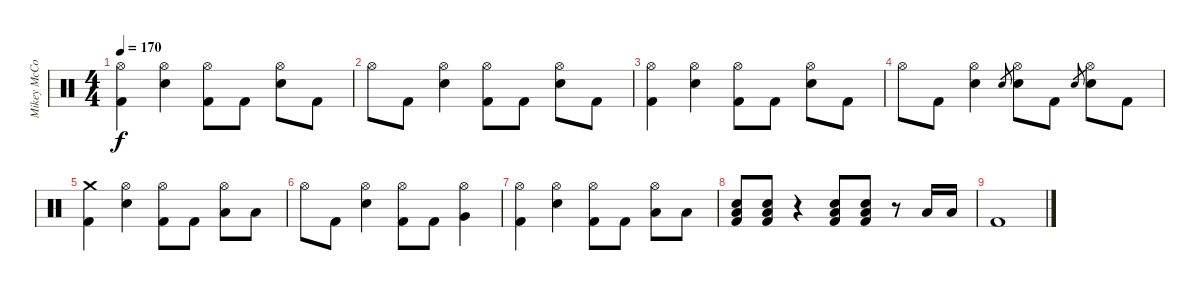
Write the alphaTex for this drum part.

\track ("Mikey McCormack" "Mikey McCo") {instrument percussion}
\staff {score}
\articulation defaults
\ts (4 4)
\tempo 170
\clef neutral
\ks c
("Hi-Hat (open)" "Kick (hit) 2").4{dy f} ("Hi-Hat (open)" "Electric Snare (hit)").4 ("Hi-Hat (open)" "Kick (hit) 2").8 "Kick (hit) 2".8 ("Hi-Hat (open)" "Electric Snare (hit)").8 "Kick (hit) 2".8 |
"Hi-Hat (open)".8 "Kick (hit) 2".8 ("Hi-Hat (open)" "Electric Snare (hit)").4 ("Hi-Hat (open)" "Kick (hit) 2").8 "Kick (hit) 2".8 ("Hi-Hat (open)" "Electric Snare (hit)").8 "Kick (hit) 2".8 |
("Hi-Hat (open)" "Kick (hit) 2").4 ("Hi-Hat (open)" "Electric Snare (hit)").4 ("Hi-Hat (open)" "Kick (hit) 2").8 "Kick (hit) 2".8 ("Hi-Hat (open)" "Electric Snare (hit)").8 "Kick (hit) 2".8 |
"Hi-Hat (open)".8 "Kick (hit) 2".8 ("Hi-Hat (open)" "Electric Snare (hit)").4 "Electric Snare (hit)".8{gr} ("Hi-Hat (open)" "Electric Snare (hit)").8 "Kick (hit) 2".8 "Electric Snare (hit)".8{gr} ("Hi-Hat (open)" "Electric Snare (hit)").8 "Kick (hit) 2".8 |
("Crash medium (hit)" "Kick (hit) 2").4 ("Hi-Hat (open)" "Electric Snare (hit)").4 ("Hi-Hat (open)" "Kick (hit) 2").8 "Kick (hit) 2".8 ("Hi-Hat (open)" "Low Tom (hit)").8 "Low Tom (hit)".8 |
"Hi-Hat (open)".8 "Kick (hit) 2".8 ("Hi-Hat (open)" "Electric Snare (hit)").4 ("Hi-Hat (open)" "Kick (hit) 2").8 "Kick (hit) 2".8 ("Hi-Hat (open)" "Very Low Tom (hit)").4 |
("Hi-Hat (open)" "Kick (hit) 2").4 ("Hi-Hat (open)" "Electric Snare (hit)").4 ("Hi-Hat (open)" "Kick (hit) 2").8 "Kick (hit) 2".8 ("Hi-Hat (open)" "Low Tom (hit)").8 "Low Tom (hit)".8 |
("Electric Snare (hit)" "Low Tom (hit)" "Kick (hit) 2").8 ("Electric Snare (hit)" "Low Tom (hit)" "Kick (hit) 2").8 r.4 ("Electric Snare (hit)" "Low Tom (hit)" "Kick (hit) 2").8 ("Electric Snare (hit)" "Low Tom (hit)" "Kick (hit) 2").8 r.8 "Low Tom (hit)".16 "Low Tom (hit)".16 |
"Kick (hit) 2".1
